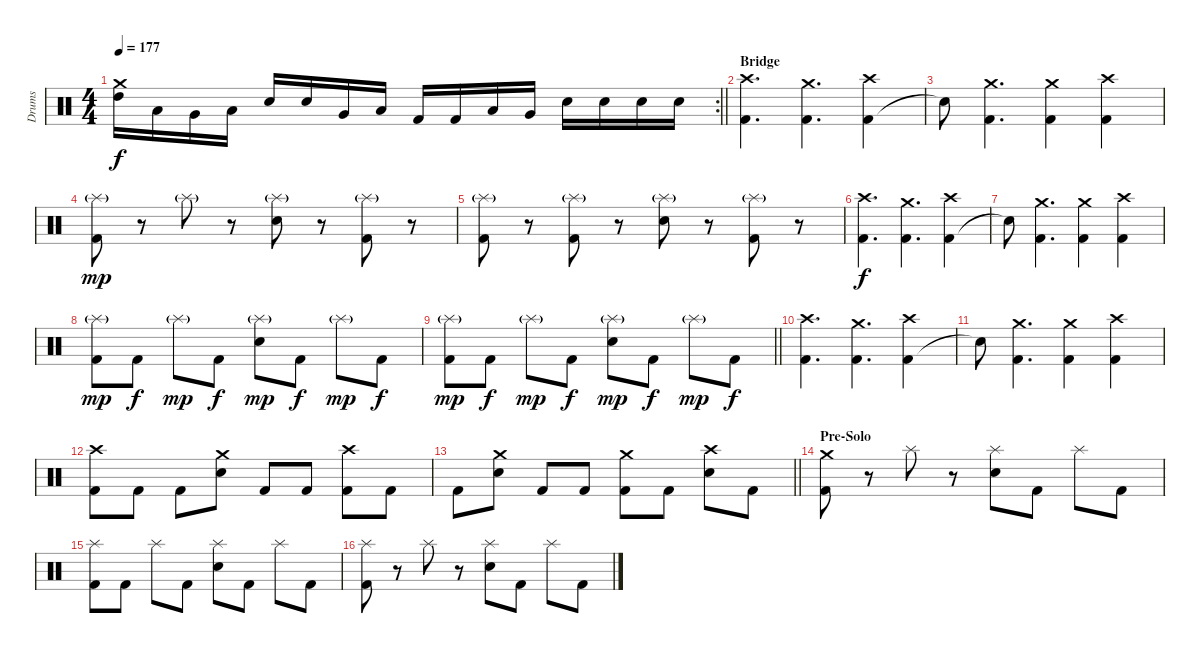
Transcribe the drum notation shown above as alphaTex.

\track ("Drums" "Drums") {instrument percussion}
\staff {score}
\articulation defaults
\rc 2
\ts (4 4)
\tempo 177
\clef neutral
\barLineRight lightlight
\ks c
("High Tom (hit)" "Crash medium (hit)").16{dy f} "Low Tom (hit)".16 "Very Low Tom (hit)".16 "Low Floor Tom (hit)".16 "Snare (hit) 2".16 "Snare (hit) 2".16 "Very Low Tom (hit)".16 "Low Floor Tom (hit)".16 "Kick (hit) 2".16 "Kick (hit) 2".16 "Low Tom (hit)".16 "Very Low Tom (hit)".16 "Snare (hit) 2".16 "Snare (hit) 2".16 "Snare (hit) 2".16 "Snare (hit) 2".16 |
\section ("" "Bridge")
("Kick (hit) 2" "Crash high (hit)").4{d} ("Kick (hit) 2" "Crash medium (hit)").4{d} ("Kick (hit) 2" "Crash high (hit)").4 |
"Snare (hit)"{t}.8 ("Kick (hit) 2" "Crash medium (hit)").4{d} ("Kick (hit) 2" "Crash medium (hit)").4 ("Kick (hit) 2" "Crash high (hit)").4 |
("Kick (hit) 2" "Splash (hit)"{g}).8{dy mp} r.8 "Splash (hit)"{g}.8 r.8 ("Snare (hit) 2" "Splash (hit)"{g}).8 r.8 ("Kick (hit) 2" "Splash (hit)"{g}).8 r.8 |
("Kick (hit) 2" "Splash (hit)"{g}).8 r.8 ("Kick (hit) 2" "Splash (hit)"{g}).8 r.8 ("Snare (hit) 2" "Splash (hit)"{g}).8 r.8 ("Kick (hit) 2" "Splash (hit)"{g}).8 r.8 |
("Kick (hit) 2" "Crash high (hit)").4{d dy f} ("Kick (hit) 2" "Crash medium (hit)").4{d} ("Kick (hit) 2" "Crash high (hit)").4 |
"Snare (hit)"{t}.8 ("Kick (hit) 2" "Crash medium (hit)").4{d} ("Kick (hit) 2" "Crash medium (hit)").4 ("Kick (hit) 2" "Crash high (hit)").4 |
("Kick (hit) 2" "Splash (hit)"{g}).8{dy mp} "Kick (hit) 2".8{dy f} "Splash (hit)"{g}.8{dy mp} "Kick (hit) 2".8{dy f} ("Snare (hit) 2" "Splash (hit)"{g}).8{dy mp} "Kick (hit) 2".8{dy f} "Splash (hit)"{g}.8{dy mp} "Kick (hit) 2".8{dy f} |
\barLineRight lightlight
("Kick (hit) 2" "Splash (hit)"{g}).8{dy mp} "Kick (hit) 2".8{dy f} "Splash (hit)"{g}.8{dy mp} "Kick (hit) 2".8{dy f} ("Snare (hit) 2" "Splash (hit)"{g}).8{dy mp} "Kick (hit) 2".8{dy f} "Splash (hit)"{g}.8{dy mp} "Kick (hit) 2".8{dy f} |
\section ("" "")
("Kick (hit) 2" "Crash high (hit)").4{d} ("Kick (hit) 2" "Crash medium (hit)").4{d} ("Kick (hit) 2" "Crash high (hit)").4 |
"Snare (hit)"{t}.8 ("Kick (hit) 2" "Crash medium (hit)").4{d} ("Kick (hit) 2" "Crash medium (hit)").4 ("Kick (hit) 2" "Crash high (hit)").4 |
("Kick (hit) 2" "Crash high (hit)").8 "Kick (hit) 2".8 "Kick (hit) 2".8 ("Snare (hit) 2" "Crash medium (hit)").8 "Kick (hit) 2".8 "Kick (hit) 2".8 ("Kick (hit) 2" "Crash high (hit)").8 "Kick (hit) 2".8 |
\barLineRight lightlight "Kick (hit) 2".8
("Snare (hit) 2" "Crash medium (hit)").8 "Kick (hit) 2".8 "Kick (hit) 2".8 ("Kick (hit) 2" "Crash medium (hit)").8 "Kick (hit) 2".8 ("Snare (hit) 2" "Crash high (hit)").8 "Kick (hit) 2".8 |
\section ("" "Pre-Solo")
("Kick (hit) 2" "Crash medium (hit)").8 r.8 "Splash (hit)".8 r.8 ("Snare (hit) 2" "Splash (hit)").8 "Kick (hit) 2".8 "Splash (hit)".8 "Kick (hit) 2".8 |
("Kick (hit) 2" "Splash (hit)").8 "Kick (hit) 2".8 "Splash (hit)".8 "Kick (hit) 2".8 ("Snare (hit) 2" "Splash (hit)").8 "Kick (hit) 2".8 "Splash (hit)".8 "Kick (hit) 2".8 |
("Kick (hit) 2" "Splash (hit)").8 r.8 "Splash (hit)".8 r.8 ("Snare (hit) 2" "Splash (hit)").8 "Kick (hit) 2".8 "Splash (hit)".8 "Kick (hit) 2".8
